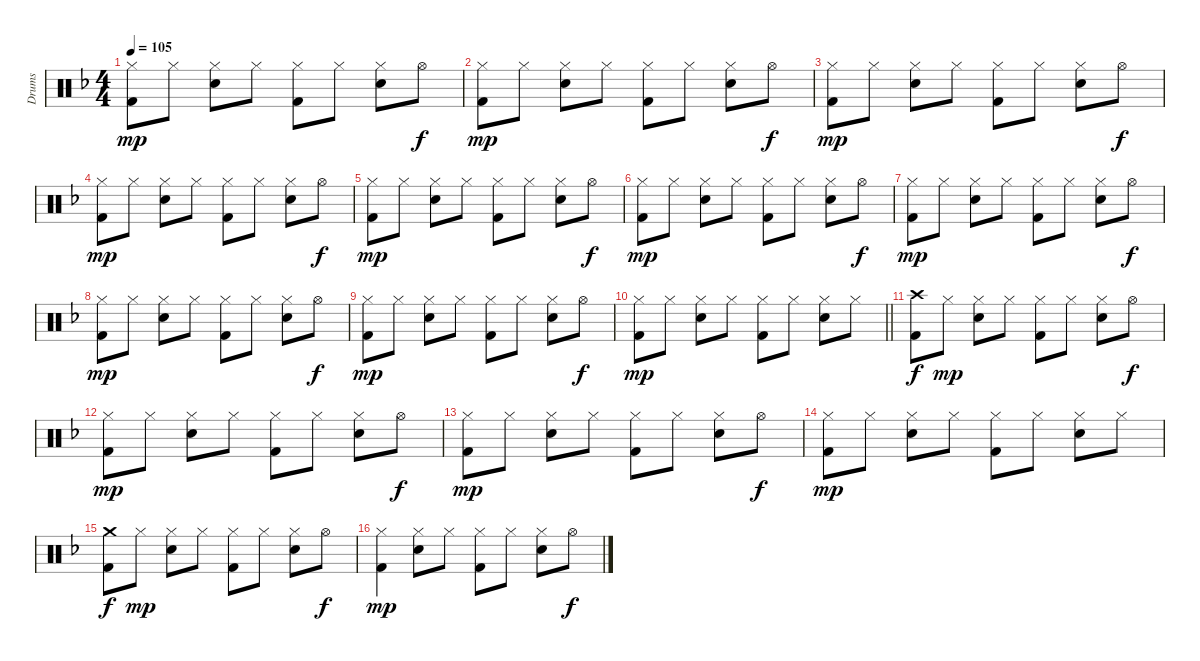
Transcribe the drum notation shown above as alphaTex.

\track ("Drums" "Drums") {instrument percussion}
\staff {score}
\articulation defaults
\ts (4 4)
\tempo 105
\clef neutral
\ks dminor
("Hi-Hat (closed)" "Kick (hit) 2").8{dy mp} "Hi-Hat (closed)".8 ("Hi-Hat (closed)" "Snare (hit) 2").8 "Hi-Hat (closed)".8 ("Hi-Hat (closed)" "Kick (hit) 2").8 "Hi-Hat (closed)".8 ("Hi-Hat (closed)" "Snare (hit) 2").8 "Hi-Hat (open)".8{dy f} |
("Hi-Hat (closed)" "Kick (hit) 2").8{dy mp} "Hi-Hat (closed)".8 ("Hi-Hat (closed)" "Snare (hit) 2").8 "Hi-Hat (closed)".8 ("Hi-Hat (closed)" "Kick (hit) 2").8 "Hi-Hat (closed)".8 ("Hi-Hat (closed)" "Snare (hit) 2").8 "Hi-Hat (open)".8{dy f} |
("Hi-Hat (closed)" "Kick (hit) 2").8{dy mp} "Hi-Hat (closed)".8 ("Hi-Hat (closed)" "Snare (hit) 2").8 "Hi-Hat (closed)".8 ("Hi-Hat (closed)" "Kick (hit) 2").8 "Hi-Hat (closed)".8 ("Hi-Hat (closed)" "Snare (hit) 2").8 "Hi-Hat (open)".8{dy f} |
("Hi-Hat (closed)" "Kick (hit) 2").8{dy mp} "Hi-Hat (closed)".8 ("Hi-Hat (closed)" "Snare (hit) 2").8 "Hi-Hat (closed)".8 ("Hi-Hat (closed)" "Kick (hit) 2").8 "Hi-Hat (closed)".8 ("Hi-Hat (closed)" "Snare (hit) 2").8 "Hi-Hat (open)".8{dy f} |
("Hi-Hat (closed)" "Kick (hit) 2").8{dy mp} "Hi-Hat (closed)".8 ("Hi-Hat (closed)" "Snare (hit) 2").8 "Hi-Hat (closed)".8 ("Hi-Hat (closed)" "Kick (hit) 2").8 "Hi-Hat (closed)".8 ("Hi-Hat (closed)" "Snare (hit) 2").8 "Hi-Hat (open)".8{dy f} |
("Hi-Hat (closed)" "Kick (hit) 2").8{dy mp} "Hi-Hat (closed)".8 ("Hi-Hat (closed)" "Snare (hit) 2").8 "Hi-Hat (closed)".8 ("Hi-Hat (closed)" "Kick (hit) 2").8 "Hi-Hat (closed)".8 ("Hi-Hat (closed)" "Snare (hit) 2").8 "Hi-Hat (open)".8{dy f} |
("Hi-Hat (closed)" "Kick (hit) 2").8{dy mp} "Hi-Hat (closed)".8 ("Hi-Hat (closed)" "Snare (hit) 2").8 "Hi-Hat (closed)".8 ("Hi-Hat (closed)" "Kick (hit) 2").8 "Hi-Hat (closed)".8 ("Hi-Hat (closed)" "Snare (hit) 2").8 "Hi-Hat (open)".8{dy f} |
("Hi-Hat (closed)" "Kick (hit) 2").8{dy mp} "Hi-Hat (closed)".8 ("Hi-Hat (closed)" "Snare (hit) 2").8 "Hi-Hat (closed)".8 ("Hi-Hat (closed)" "Kick (hit) 2").8 "Hi-Hat (closed)".8 ("Hi-Hat (closed)" "Snare (hit) 2").8 "Hi-Hat (open)".8{dy f} |
("Hi-Hat (closed)" "Kick (hit) 2").8{dy mp} "Hi-Hat (closed)".8 ("Hi-Hat (closed)" "Snare (hit) 2").8 "Hi-Hat (closed)".8 ("Hi-Hat (closed)" "Kick (hit) 2").8 "Hi-Hat (closed)".8 ("Hi-Hat (closed)" "Snare (hit) 2").8 "Hi-Hat (open)".8{dy f} |
\barLineRight lightlight
("Hi-Hat (closed)" "Kick (hit) 2").8{dy mp} "Hi-Hat (closed)".8 ("Hi-Hat (closed)" "Snare (hit) 2").8 "Hi-Hat (closed)".8 ("Hi-Hat (closed)" "Kick (hit) 2").8 "Hi-Hat (closed)".8 ("Hi-Hat (closed)" "Snare (hit) 2").8 "Hi-Hat (closed)".8 |
("Crash high (hit)" "Kick (hit) 2").8{dy f} "Hi-Hat (closed)".8{dy mp} ("Hi-Hat (closed)" "Snare (hit) 2").8 "Hi-Hat (closed)".8 ("Hi-Hat (closed)" "Kick (hit) 2").8 "Hi-Hat (closed)".8 ("Hi-Hat (closed)" "Snare (hit) 2").8 "Hi-Hat (open)".8{dy f} |
("Hi-Hat (closed)" "Kick (hit) 2").8{dy mp} "Hi-Hat (closed)".8 ("Hi-Hat (closed)" "Snare (hit) 2").8 "Hi-Hat (closed)".8 ("Hi-Hat (closed)" "Kick (hit) 2").8 "Hi-Hat (closed)".8 ("Hi-Hat (closed)" "Snare (hit) 2").8 "Hi-Hat (open)".8{dy f} |
("Hi-Hat (closed)" "Kick (hit) 2").8{dy mp} "Hi-Hat (closed)".8 ("Hi-Hat (closed)" "Snare (hit) 2").8 "Hi-Hat (closed)".8 ("Hi-Hat (closed)" "Kick (hit) 2").8 "Hi-Hat (closed)".8 ("Hi-Hat (closed)" "Snare (hit) 2").8 "Hi-Hat (open)".8{dy f} |
("Hi-Hat (closed)" "Kick (hit) 2").8{dy mp} "Hi-Hat (closed)".8 ("Hi-Hat (closed)" "Snare (hit) 2").8 "Hi-Hat (closed)".8 ("Hi-Hat (closed)" "Kick (hit) 2").8 "Hi-Hat (closed)".8 ("Hi-Hat (closed)" "Snare (hit) 2").8 "Hi-Hat (closed)".8 |
("Crash medium (hit)" "Kick (hit) 2").8{dy f} "Hi-Hat (closed)".8{dy mp} ("Hi-Hat (closed)" "Snare (hit) 2").8 "Hi-Hat (closed)".8 ("Hi-Hat (closed)" "Kick (hit) 2").8 "Hi-Hat (closed)".8 ("Hi-Hat (closed)" "Snare (hit) 2").8 "Hi-Hat (open)".8{dy f} |
("Hi-Hat (closed)" "Kick (hit) 2").4{dy mp} ("Hi-Hat (closed)" "Snare (hit) 2").8 "Hi-Hat (closed)".8 ("Hi-Hat (closed)" "Kick (hit) 2").8 "Hi-Hat (closed)".8 ("Hi-Hat (closed)" "Snare (hit) 2").8 "Hi-Hat (open)".8{dy f}
